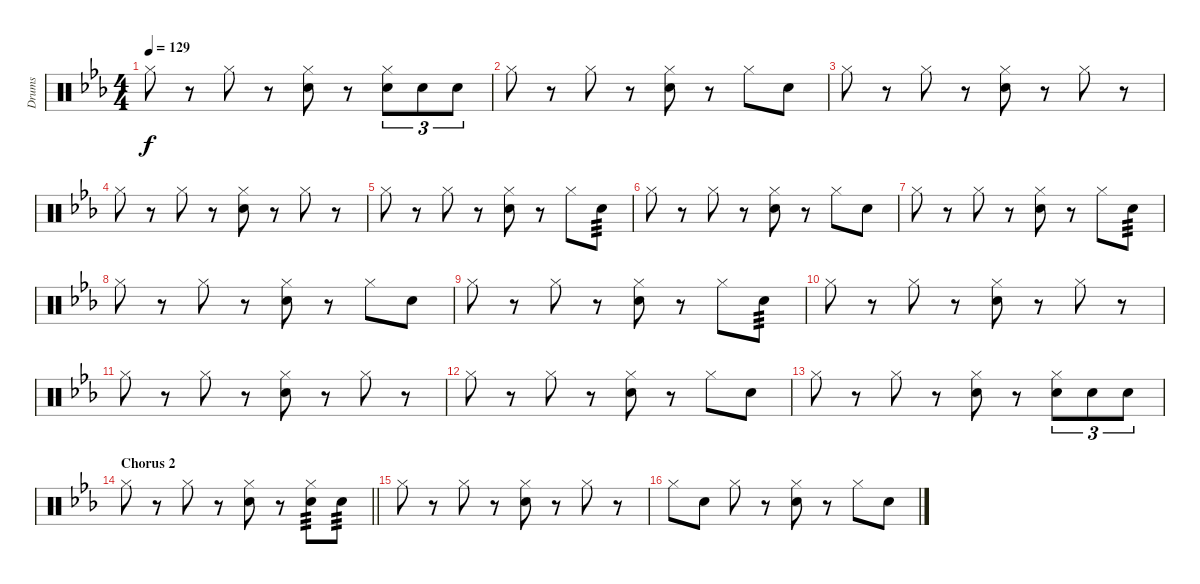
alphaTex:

\track ("Drums" "Drums") {instrument percussion}
\staff {score}
\articulation defaults
\ts (4 4)
\tempo 129
\clef neutral
\ks eb "Hi-Hat (closed)".8{dy f}
r.8 "Hi-Hat (closed)".8 r.8 ("Hi-Hat (closed)" "Snare (hit) 2").8 r.8 ("Hi-Hat (closed)" "Snare (hit) 2").8{tu (3 2)} "Snare (hit) 2".8{tu (3 2)} "Snare (hit) 2".8{tu (3 2)} |
"Hi-Hat (closed)".8 r.8 "Hi-Hat (closed)".8 r.8 ("Hi-Hat (closed)" "Snare (hit) 2").8 r.8 "Hi-Hat (closed)".8 "Snare (hit) 2".8 |
"Hi-Hat (closed)".8 r.8 "Hi-Hat (closed)".8 r.8 ("Hi-Hat (closed)" "Snare (hit) 2").8 r.8 "Hi-Hat (closed)".8 r.8 |
"Hi-Hat (closed)".8 r.8 "Hi-Hat (closed)".8 r.8 ("Hi-Hat (closed)" "Snare (hit) 2").8 r.8 "Hi-Hat (closed)".8 r.8 |
"Hi-Hat (closed)".8 r.8 "Hi-Hat (closed)".8 r.8 ("Hi-Hat (closed)" "Snare (hit) 2").8 r.8 "Hi-Hat (closed)".8 "Snare (hit) 2".8{tp 3} |
"Hi-Hat (closed)".8 r.8 "Hi-Hat (closed)".8 r.8 ("Hi-Hat (closed)" "Snare (hit) 2").8 r.8 "Hi-Hat (closed)".8 "Snare (hit) 2".8 |
"Hi-Hat (closed)".8 r.8 "Hi-Hat (closed)".8 r.8 ("Hi-Hat (closed)" "Snare (hit) 2").8 r.8 "Hi-Hat (closed)".8 "Snare (hit) 2".8{tp 3} |
"Hi-Hat (closed)".8 r.8 "Hi-Hat (closed)".8 r.8 ("Hi-Hat (closed)" "Snare (hit) 2").8 r.8 "Hi-Hat (closed)".8 "Snare (hit) 2".8 |
"Hi-Hat (closed)".8 r.8 "Hi-Hat (closed)".8 r.8 ("Hi-Hat (closed)" "Snare (hit) 2").8 r.8 "Hi-Hat (closed)".8 "Snare (hit) 2".8{tp 3} |
"Hi-Hat (closed)".8 r.8 "Hi-Hat (closed)".8 r.8 ("Hi-Hat (closed)" "Snare (hit) 2").8 r.8 "Hi-Hat (closed)".8 r.8 |
"Hi-Hat (closed)".8 r.8 "Hi-Hat (closed)".8 r.8 ("Hi-Hat (closed)" "Snare (hit) 2").8 r.8 "Hi-Hat (closed)".8 r.8 |
"Hi-Hat (closed)".8 r.8 "Hi-Hat (closed)".8 r.8 ("Hi-Hat (closed)" "Snare (hit) 2").8 r.8 "Hi-Hat (closed)".8 "Snare (hit) 2".8 |
"Hi-Hat (closed)".8 r.8 "Hi-Hat (closed)".8 r.8 ("Hi-Hat (closed)" "Snare (hit) 2").8 r.8 ("Hi-Hat (closed)" "Snare (hit) 2").8{tu (3 2)} "Snare (hit) 2".8{tu (3 2)} "Snare (hit) 2".8{tu (3 2)} |
\section ("" "Chorus 2")
\barLineRight lightlight "Hi-Hat (closed)".8
r.8 "Hi-Hat (closed)".8 r.8 ("Hi-Hat (closed)" "Snare (hit) 2").8 r.8 ("Hi-Hat (closed)" "Snare (hit) 2").8{tp 3} "Snare (hit) 2".8{tp 3} |
"Hi-Hat (closed)".8 r.8 "Hi-Hat (closed)".8 r.8 ("Hi-Hat (closed)" "Snare (hit) 2").8 r.8 "Hi-Hat (closed)".8 r.8 |
"Hi-Hat (closed)".8 "Snare (hit) 2".8 "Hi-Hat (closed)".8 r.8 ("Hi-Hat (closed)" "Snare (hit) 2").8 r.8 "Hi-Hat (closed)".8 "Snare (hit) 2".8
